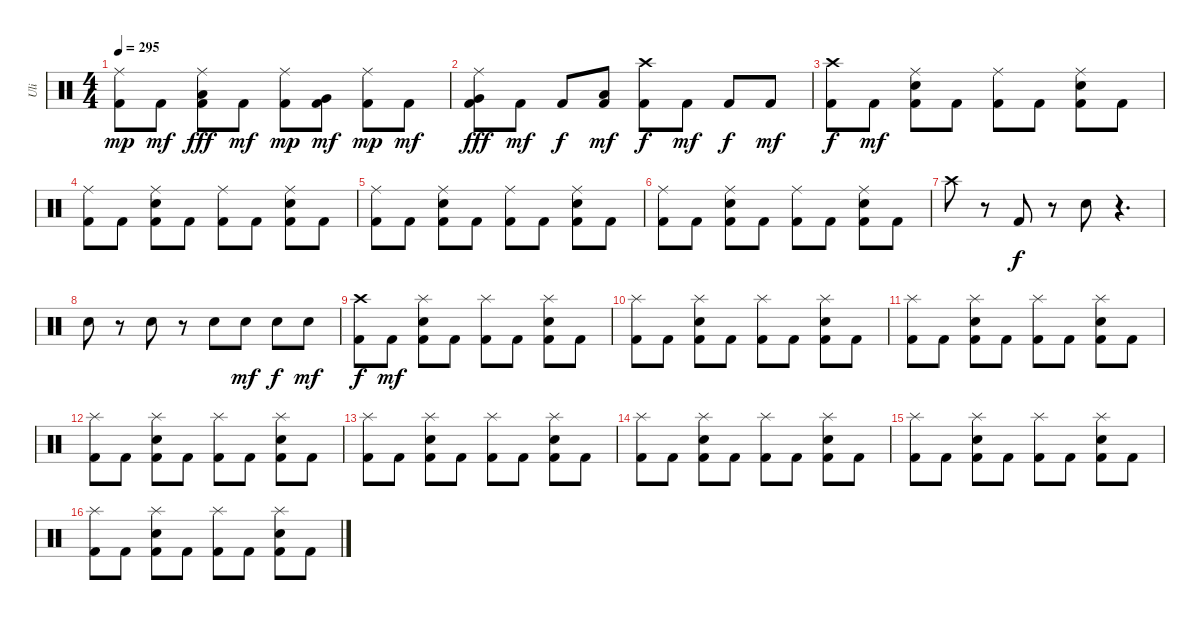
\track ("Uli" "Uli") {instrument percussion}
\staff {score}
\articulation defaults
\ts (4 4)
\tempo 295
\clef neutral
\ks c
("Ride (middle)" "Kick (hit) 2").8{dy mp} "Kick (hit) 2".8{dy mf volume 16} ("Ride (middle)" "Low Tom (hit)" "Kick (hit) 2").8{dy fff} "Kick (hit) 2".8{dy mf} ("Ride (middle)" "Kick (hit) 2").8{dy mp} ("Very Low Tom (hit)" "Kick (hit) 2").8{dy mf} ("Ride (middle)" "Kick (hit) 2").8{dy mp} "Kick (hit) 2".8{dy mf} |
("Ride (middle)" "Very Low Tom (hit)" "Kick (hit) 2").8{dy fff} "Kick (hit) 2".8{dy mf volume 16} "Kick (hit) 2".8{dy f} ("Low Floor Tom (hit)" "Kick (hit) 2").8{dy mf} ("Crash high (hit)" "Kick (hit) 2").8{dy f} "Kick (hit) 2".8{dy mf} "Kick (hit) 2".8{dy f} "Kick (hit) 2".8{dy mf} |
("Crash high (hit)" "Kick (hit) 2").8{dy f} "Kick (hit) 2".8{dy mf volume 16} ("Ride (middle)" "Electric Snare (hit)" "Kick (hit) 2").8 "Kick (hit) 2".8 ("Ride (middle)" "Kick (hit) 2").8 "Kick (hit) 2".8 ("Ride (middle)" "Electric Snare (hit)" "Kick (hit) 2").8 "Kick (hit) 2".8 |
("Ride (middle)" "Kick (hit) 2").8 "Kick (hit) 2".8{volume 16} ("Ride (middle)" "Electric Snare (hit)" "Kick (hit) 2").8 "Kick (hit) 2".8 ("Ride (middle)" "Kick (hit) 2").8 "Kick (hit) 2".8 ("Ride (middle)" "Electric Snare (hit)" "Kick (hit) 2").8 "Kick (hit) 2".8 |
("Ride (middle)" "Kick (hit) 2").8 "Kick (hit) 2".8{volume 16} ("Ride (middle)" "Electric Snare (hit)" "Kick (hit) 2").8 "Kick (hit) 2".8 ("Ride (middle)" "Kick (hit) 2").8 "Kick (hit) 2".8 ("Ride (middle)" "Electric Snare (hit)" "Kick (hit) 2").8 "Kick (hit) 2".8 |
("Ride (middle)" "Kick (hit) 2").8 "Kick (hit) 2".8{volume 16} ("Ride (middle)" "Electric Snare (hit)" "Kick (hit) 2").8 "Kick (hit) 2".8 ("Ride (middle)" "Kick (hit) 2").8 "Kick (hit) 2".8 ("Ride (middle)" "Electric Snare (hit)" "Kick (hit) 2").8 "Kick (hit) 2".8 |
"Crash high (hit)".8 r.8 "Kick (hit) 2".8{dy f} r.8 "Electric Snare (hit)".8 r.4{d} |
"Electric Snare (hit)".8 r.8 "Electric Snare (hit)".8 r.8 "Electric Snare (hit)".8 "Electric Snare (hit)".8{dy mf} "Electric Snare (hit)".8{dy f} "Electric Snare (hit)".8{dy mf} |
("Crash high (hit)" "Kick (hit) 2").8{dy f} "Kick (hit) 2".8{dy mf volume 16} ("Splash (hit)" "Electric Snare (hit)" "Kick (hit) 2").8 "Kick (hit) 2".8 ("Splash (hit)" "Kick (hit) 2").8 "Kick (hit) 2".8 ("Splash (hit)" "Electric Snare (hit)" "Kick (hit) 2").8 "Kick (hit) 2".8 |
("Splash (hit)" "Kick (hit) 2").8 "Kick (hit) 2".8{volume 16} ("Splash (hit)" "Electric Snare (hit)" "Kick (hit) 2").8 "Kick (hit) 2".8 ("Splash (hit)" "Kick (hit) 2").8 "Kick (hit) 2".8 ("Splash (hit)" "Electric Snare (hit)" "Kick (hit) 2").8 "Kick (hit) 2".8 |
("Splash (hit)" "Kick (hit) 2").8 "Kick (hit) 2".8{volume 16} ("Splash (hit)" "Electric Snare (hit)" "Kick (hit) 2").8 "Kick (hit) 2".8 ("Splash (hit)" "Kick (hit) 2").8 "Kick (hit) 2".8 ("Splash (hit)" "Electric Snare (hit)" "Kick (hit) 2").8 "Kick (hit) 2".8 |
("Splash (hit)" "Kick (hit) 2").8 "Kick (hit) 2".8{volume 16} ("Splash (hit)" "Electric Snare (hit)" "Kick (hit) 2").8 "Kick (hit) 2".8 ("Splash (hit)" "Kick (hit) 2").8 "Kick (hit) 2".8 ("Splash (hit)" "Electric Snare (hit)" "Kick (hit) 2").8 "Kick (hit) 2".8 |
("Splash (hit)" "Kick (hit) 2").8 "Kick (hit) 2".8{volume 16} ("Splash (hit)" "Electric Snare (hit)" "Kick (hit) 2").8 "Kick (hit) 2".8 ("Splash (hit)" "Kick (hit) 2").8 "Kick (hit) 2".8 ("Splash (hit)" "Electric Snare (hit)" "Kick (hit) 2").8 "Kick (hit) 2".8 |
("Splash (hit)" "Kick (hit) 2").8 "Kick (hit) 2".8{volume 16} ("Splash (hit)" "Electric Snare (hit)" "Kick (hit) 2").8 "Kick (hit) 2".8 ("Splash (hit)" "Kick (hit) 2").8 "Kick (hit) 2".8 ("Splash (hit)" "Electric Snare (hit)" "Kick (hit) 2").8 "Kick (hit) 2".8 |
("Splash (hit)" "Kick (hit) 2").8 "Kick (hit) 2".8{volume 16} ("Splash (hit)" "Electric Snare (hit)" "Kick (hit) 2").8 "Kick (hit) 2".8 ("Splash (hit)" "Kick (hit) 2").8 "Kick (hit) 2".8 ("Splash (hit)" "Electric Snare (hit)" "Kick (hit) 2").8 "Kick (hit) 2".8 |
("Splash (hit)" "Kick (hit) 2").8 "Kick (hit) 2".8{volume 16} ("Splash (hit)" "Electric Snare (hit)" "Kick (hit) 2").8 "Kick (hit) 2".8 ("Splash (hit)" "Kick (hit) 2").8 "Kick (hit) 2".8 ("Splash (hit)" "Electric Snare (hit)" "Kick (hit) 2").8 "Kick (hit) 2".8
